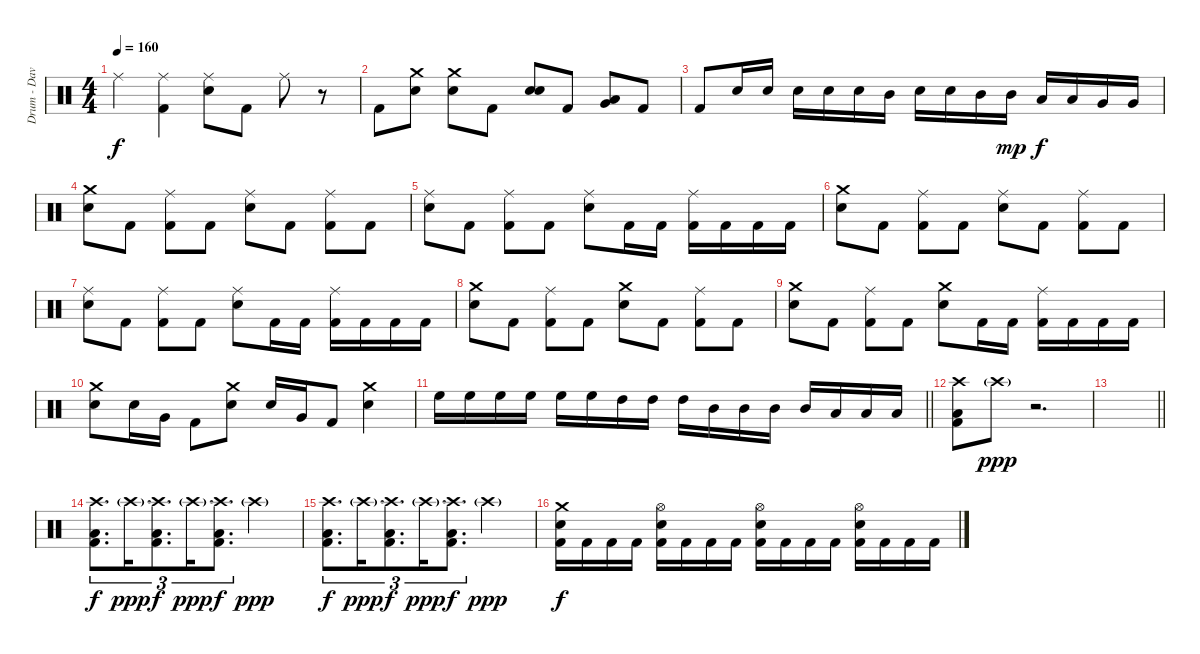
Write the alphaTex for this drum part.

\track ("Drum - Dave Mackintosh" "Drum - Dav") {instrument percussion}
\staff {score}
\articulation defaults
\ts (4 4)
\tempo 160
\clef neutral
\ks c "Ride (middle)".4{dy f}
("Ride (middle)" "Kick (hit) 2").4 ("Ride (middle)" "Electric Snare (hit)").8 "Kick (hit) 2".8 "Ride (middle)".8 r.8 |
"Kick (hit) 2".8 ("Crash medium (hit)" "Electric Snare (hit)").8 ("Crash medium (hit)" "Electric Snare (hit)").8 "Kick (hit) 2".8 ("Electric Snare (hit)" "Electric Snare (hit)").8 "Kick (hit) 2".8 ("Very Low Tom (hit)" "Low Tom (hit)").8 "Kick (hit) 2".8 |
"Kick (hit) 2".8 "Electric Snare (hit)".16 "Electric Snare (hit)".16 "Electric Snare (hit)".16 "Electric Snare (hit)".16 "Electric Snare (hit)".16 "Mid Tom (hit)".16 "Electric Snare (hit)".16 "Electric Snare (hit)".16 "Mid Tom (hit)".16 "Mid Tom (hit)".16{dy mp} "Low Tom (hit)".16{dy f} "Low Tom (hit)".16 "Very Low Tom (hit)".16 "Very Low Tom (hit)".16 |
("Crash medium (hit)" "Electric Snare (hit)").8 "Kick (hit) 2".8 ("Ride (middle)" "Kick (hit) 2").8 "Kick (hit) 2".8 ("Ride (middle)" "Electric Snare (hit)").8 "Kick (hit) 2".8 ("Ride (middle)" "Kick (hit) 2").8 "Kick (hit) 2".8 |
("Ride (middle)" "Electric Snare (hit)").8 "Kick (hit) 2".8 ("Ride (middle)" "Kick (hit) 2").8 "Kick (hit) 2".8 ("Ride (middle)" "Electric Snare (hit)").8 "Kick (hit) 2".16 "Kick (hit) 2".16 ("Ride (middle)" "Kick (hit) 2").16 "Kick (hit) 2".16 "Kick (hit) 2".16 "Kick (hit) 2".16 |
("Crash medium (hit)" "Electric Snare (hit)").8 "Kick (hit) 2".8 ("Ride (middle)" "Kick (hit) 2").8 "Kick (hit) 2".8 ("Ride (middle)" "Electric Snare (hit)").8 "Kick (hit) 2".8 ("Ride (middle)" "Kick (hit) 2").8 "Kick (hit) 2".8 |
("Ride (middle)" "Electric Snare (hit)").8 "Kick (hit) 2".8 ("Ride (middle)" "Kick (hit) 2").8 "Kick (hit) 2".8 ("Ride (middle)" "Electric Snare (hit)").8 "Kick (hit) 2".16 "Kick (hit) 2".16 ("Ride (middle)" "Kick (hit) 2").16 "Kick (hit) 2".16 "Kick (hit) 2".16 "Kick (hit) 2".16 |
("Crash medium (hit)" "Electric Snare (hit)").8 "Kick (hit) 2".8 ("Ride (middle)" "Kick (hit) 2").8 "Kick (hit) 2".8 ("Crash medium (hit)" "Electric Snare (hit)").8 "Kick (hit) 2".8 ("Ride (middle)" "Kick (hit) 2").8 "Kick (hit) 2".8 |
("Crash medium (hit)" "Electric Snare (hit)").8 "Kick (hit) 2".8 ("Ride (middle)" "Kick (hit) 2").8 "Kick (hit) 2".8 ("Crash medium (hit)" "Electric Snare (hit)").8 "Kick (hit) 2".16 "Kick (hit) 2".16 ("Ride (middle)" "Kick (hit) 2").16 "Kick (hit) 2".16 "Kick (hit) 2".16 "Kick (hit) 2".16 |
("Crash medium (hit)" "Electric Snare (hit)").8 "Electric Snare (hit)".16 "Very Low Tom (hit)".16 "Kick (hit) 2".8 ("Crash medium (hit)" "Electric Snare (hit)").8 "Electric Snare (hit)".16 "Very Low Tom (hit)".16 "Kick (hit) 2".8 ("Crash medium (hit)" "Electric Snare (hit)").4 |
\barLineRight lightlight "High Floor Tom (hit)".16 "High Floor Tom (hit)".16 "High Floor Tom (hit)".16 "High Floor Tom (hit)".16 "High Floor Tom (hit)".16 "High Floor Tom (hit)".16 "High Tom (hit)".16 "High Tom (hit)".16 "High Tom (hit)".16 "Mid Tom (hit)".16 "Mid Tom (hit)".16 "Mid Tom (hit)".16 "Mid Tom (hit)".16 "Low Tom (hit)".16 "Low Tom (hit)".16 "Low Tom (hit)".16
|
("Crash high (hit)" "Low Floor Tom (hit)" "Kick (hit) 2").8 "Crash high (hit)"{g}.8{dy ppp} r.2{d} |
\barLineRight lightlight
|
\section ("" "")
("Crash high (hit)" "Low Floor Tom (hit)" "Kick (hit) 2").8{d tu (3 2) dy f} "Crash high (hit)"{g}.16{d tu (3 2) dy ppp} ("Crash high (hit)" "Low Floor Tom (hit)" "Kick (hit) 2").8{d tu (3 2) dy f} "Crash high (hit)"{g}.16{d tu (3 2) dy ppp} ("Crash high (hit)" "Low Floor Tom (hit)" "Kick (hit) 2").8{d tu (3 2) dy f} "Crash high (hit)"{g}.2{dy ppp} |
("Crash high (hit)" "Low Floor Tom (hit)" "Kick (hit) 2").8{d tu (3 2) dy f} "Crash high (hit)"{g}.16{d tu (3 2) dy ppp} ("Crash high (hit)" "Low Floor Tom (hit)" "Kick (hit) 2").8{d tu (3 2) dy f} "Crash high (hit)"{g}.16{d tu (3 2) dy ppp} ("Crash high (hit)" "Low Floor Tom (hit)" "Kick (hit) 2").8{d tu (3 2) dy f} "Crash high (hit)"{g}.2{dy ppp} |
("Crash medium (hit)" "Electric Snare (hit)" "Kick (hit) 2").16{dy f} "Kick (hit) 2".16 "Kick (hit) 2".16 "Kick (hit) 2".16 ("Hi-Hat (open)" "Electric Snare (hit)" "Kick (hit) 2").16 "Kick (hit) 2".16 "Kick (hit) 2".16 "Kick (hit) 2".16 ("Hi-Hat (open)" "Electric Snare (hit)" "Kick (hit) 2").16 "Kick (hit) 2".16 "Kick (hit) 2".16 "Kick (hit) 2".16 ("Hi-Hat (open)" "Electric Snare (hit)" "Kick (hit) 2").16 "Kick (hit) 2".16 "Kick (hit) 2".16 "Kick (hit) 2".16
